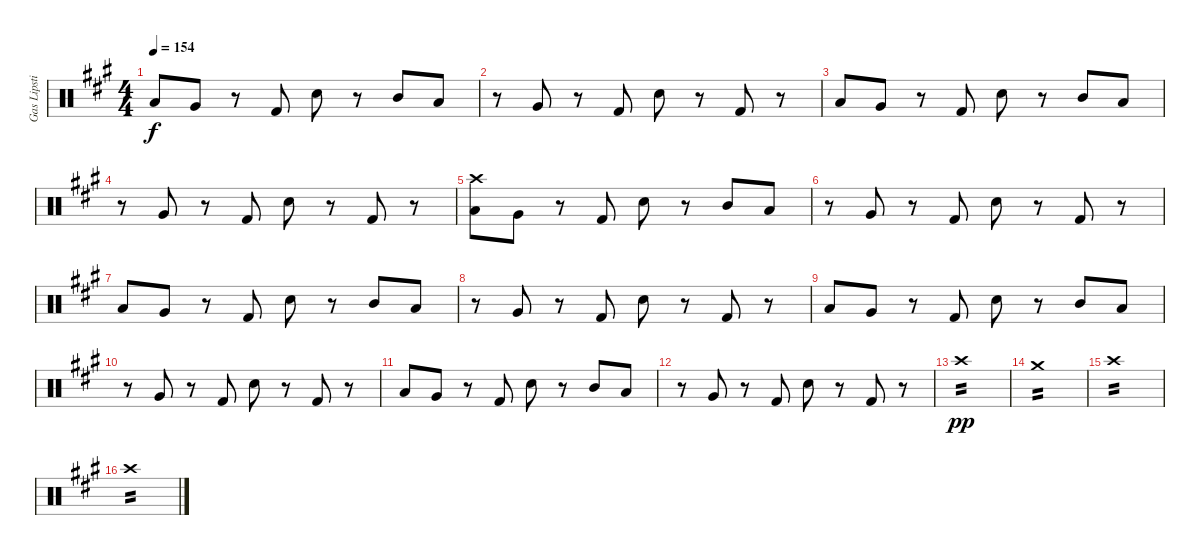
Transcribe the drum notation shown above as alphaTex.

\track ("Gas Lipstick (Drums)" "Gas Lipsti") {instrument percussion}
\staff {score}
\articulation defaults
\ts (4 4)
\tempo 154
\clef neutral
\ks a "Low Tom (hit)".8{dy f} "Very Low Tom (hit)".8
r.8 "Kick (hit) 2".8 "Snare (hit) 2".8 r.8 "Mid Tom (hit)".8 "Low Tom (hit)".8 |
r.8 "Very Low Tom (hit)".8 r.8 "Kick (hit) 2".8 "Snare (hit) 2".8 r.8 "Kick (hit) 2".8 r.8 |
"Low Tom (hit)".8 "Very Low Tom (hit)".8 r.8 "Kick (hit) 2".8 "Snare (hit) 2".8 r.8 "Mid Tom (hit)".8 "Low Tom (hit)".8 |
r.8 "Very Low Tom (hit)".8 r.8 "Kick (hit) 2".8 "Snare (hit) 2".8 r.8 "Kick (hit) 2".8 r.8 |
("Crash high (hit)" "Low Tom (hit)").8 "Very Low Tom (hit)".8 r.8 "Kick (hit) 2".8 "Snare (hit) 2".8 r.8 "Mid Tom (hit)".8 "Low Tom (hit)".8 |
r.8 "Very Low Tom (hit)".8 r.8 "Kick (hit) 2".8 "Snare (hit) 2".8 r.8 "Kick (hit) 2".8 r.8 |
"Low Tom (hit)".8 "Very Low Tom (hit)".8 r.8 "Kick (hit) 2".8 "Snare (hit) 2".8 r.8 "Mid Tom (hit)".8 "Low Tom (hit)".8 |
r.8 "Very Low Tom (hit)".8 r.8 "Kick (hit) 2".8 "Snare (hit) 2".8 r.8 "Kick (hit) 2".8 r.8 |
"Low Tom (hit)".8 "Very Low Tom (hit)".8 r.8 "Kick (hit) 2".8 "Snare (hit) 2".8 r.8 "Mid Tom (hit)".8 "Low Tom (hit)".8 |
r.8 "Very Low Tom (hit)".8 r.8 "Kick (hit) 2".8 "Snare (hit) 2".8 r.8 "Kick (hit) 2".8 r.8 |
"Low Tom (hit)".8 "Very Low Tom (hit)".8 r.8 "Kick (hit) 2".8 "Snare (hit) 2".8 r.8 "Mid Tom (hit)".8 "Low Tom (hit)".8 |
r.8 "Very Low Tom (hit)".8 r.8 "Kick (hit) 2".8 "Snare (hit) 2".8 r.8 "Kick (hit) 2".8 r.8{volume 9} |
"Crash high (hit)".1{tp 2 dy pp balance 0} |
"Crash medium (hit)".1{tp 2} |
"Crash high (hit)".1{tp 2} |
"Crash high (hit)".1{tp 2}
